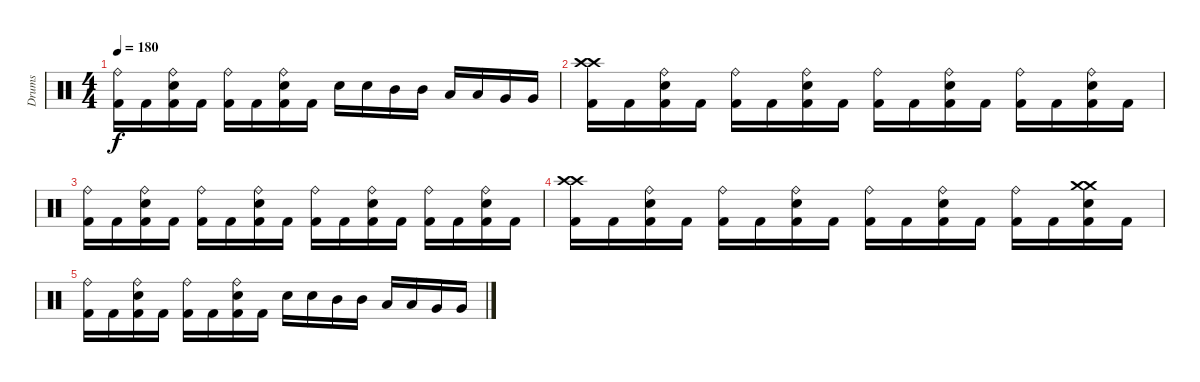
\track ("Drums" "Drums") {instrument percussion}
\staff {score}
\articulation defaults
\ts (4 4)
\tempo 180
\clef neutral
\ks c
("Ride (bell)" "Kick (hit) 2").16{dy f} "Kick (hit) 2".16 ("Ride (bell)" "Snare (hit) 2" "Kick (hit) 2").16 "Kick (hit) 2".16 ("Ride (bell)" "Kick (hit) 2").16 "Kick (hit) 2".16 ("Ride (bell)" "Snare (hit) 2" "Kick (hit) 2").16 "Kick (hit) 2".16 "Snare (hit) 2".16 "Snare (hit) 2".16 "Mid Tom (hit)".16 "Mid Tom (hit)".16 "Low Tom (hit)".16 "Low Tom (hit)".16 "Very Low Tom (hit)".16 "Very Low Tom (hit)".16 |
("Crash high (hit)" "Crash high (hit)" "Kick (hit) 2").16 "Kick (hit) 2".16 ("Ride (bell)" "Snare (hit) 2" "Kick (hit) 2").16 "Kick (hit) 2".16 ("Ride (bell)" "Kick (hit) 2").16 "Kick (hit) 2".16 ("Ride (bell)" "Snare (hit) 2" "Kick (hit) 2").16 "Kick (hit) 2".16 ("Ride (bell)" "Kick (hit) 2").16 "Kick (hit) 2".16 ("Ride (bell)" "Snare (hit) 2" "Kick (hit) 2").16 "Kick (hit) 2".16 ("Ride (bell)" "Kick (hit) 2").16 "Kick (hit) 2".16 ("Ride (bell)" "Snare (hit) 2" "Kick (hit) 2").16 "Kick (hit) 2".16 |
("Ride (bell)" "Kick (hit) 2").16 "Kick (hit) 2".16 ("Ride (bell)" "Snare (hit) 2" "Kick (hit) 2").16 "Kick (hit) 2".16 ("Ride (bell)" "Kick (hit) 2").16 "Kick (hit) 2".16 ("Ride (bell)" "Snare (hit) 2" "Kick (hit) 2").16 "Kick (hit) 2".16 ("Ride (bell)" "Kick (hit) 2").16 "Kick (hit) 2".16 ("Ride (bell)" "Snare (hit) 2" "Kick (hit) 2").16 "Kick (hit) 2".16 ("Ride (bell)" "Kick (hit) 2").16 "Kick (hit) 2".16 ("Ride (bell)" "Snare (hit) 2" "Kick (hit) 2").16 "Kick (hit) 2".16 |
("Crash high (hit)" "Crash high (hit)" "Kick (hit) 2").16 "Kick (hit) 2".16 ("Ride (bell)" "Snare (hit) 2" "Kick (hit) 2").16 "Kick (hit) 2".16 ("Ride (bell)" "Kick (hit) 2").16 "Kick (hit) 2".16 ("Ride (bell)" "Snare (hit) 2" "Kick (hit) 2").16 "Kick (hit) 2".16 ("Ride (bell)" "Kick (hit) 2").16 "Kick (hit) 2".16 ("Ride (bell)" "Snare (hit) 2" "Kick (hit) 2").16 "Kick (hit) 2".16 ("Ride (bell)" "Kick (hit) 2").16 "Kick (hit) 2".16 ("Crash medium (hit)" "Crash medium (hit)" "Snare (hit) 2" "Kick (hit) 2").16 "Kick (hit) 2".16 |
("Ride (bell)" "Kick (hit) 2").16 "Kick (hit) 2".16 ("Ride (bell)" "Snare (hit) 2" "Kick (hit) 2").16 "Kick (hit) 2".16 ("Ride (bell)" "Kick (hit) 2").16 "Kick (hit) 2".16 ("Ride (bell)" "Snare (hit) 2" "Kick (hit) 2").16 "Kick (hit) 2".16 "Snare (hit) 2".16 "Snare (hit) 2".16 "Mid Tom (hit)".16 "Mid Tom (hit)".16 "Low Tom (hit)".16 "Low Tom (hit)".16 "Very Low Tom (hit)".16 "Very Low Tom (hit)".16
